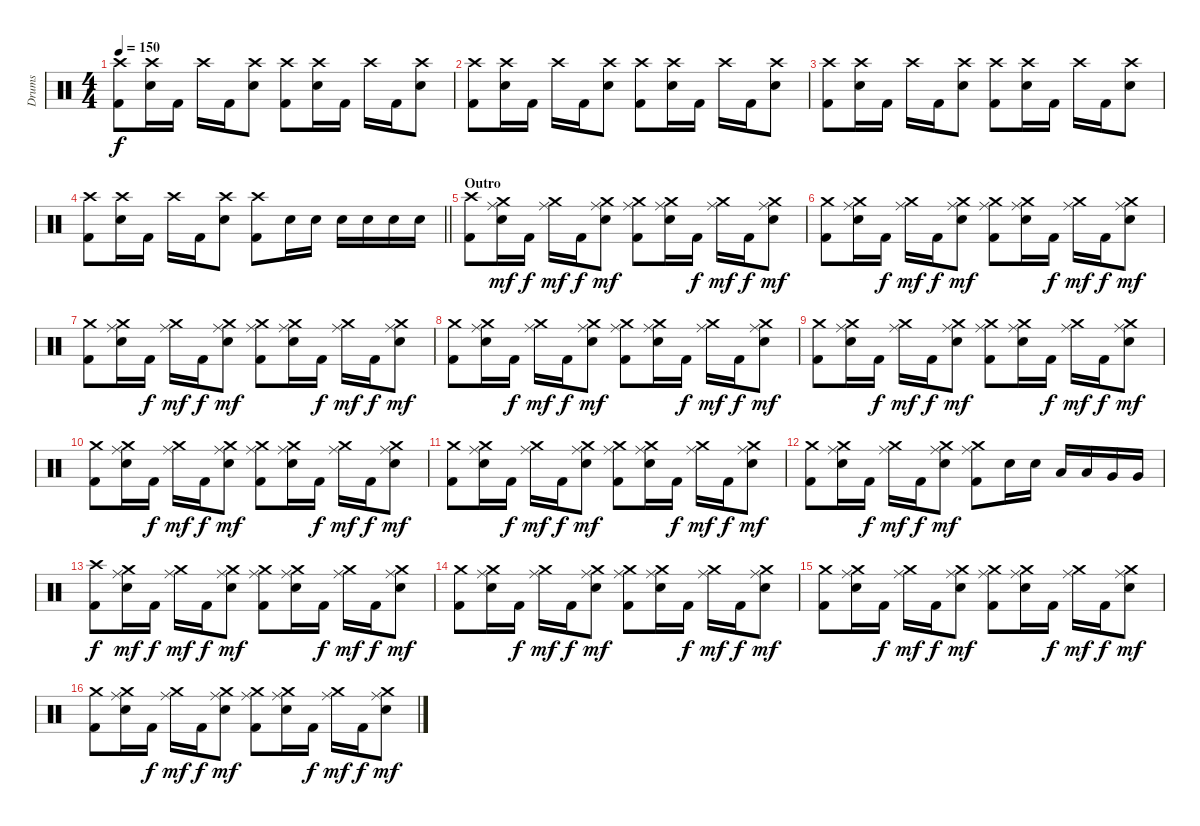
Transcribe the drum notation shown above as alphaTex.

\track ("Drums" "Drums") {instrument percussion}
\staff {score}
\articulation defaults
\ts (4 4)
\tempo 150
\clef neutral
\ks c
("Crash high (hit)" "Kick (hit) 2").8{dy f} ("Crash high (hit)" "Electric Snare (hit)").16 "Kick (hit) 2".16 "Crash high (hit)".16 "Kick (hit) 2".16 ("Crash high (hit)" "Electric Snare (hit)").8 ("Crash high (hit)" "Kick (hit) 2").8 ("Crash high (hit)" "Electric Snare (hit)").16 "Kick (hit) 2".16 "Crash high (hit)".16 "Kick (hit) 2".16 ("Crash high (hit)" "Electric Snare (hit)").8 |
("Crash high (hit)" "Kick (hit) 2").8 ("Crash high (hit)" "Electric Snare (hit)").16 "Kick (hit) 2".16 "Crash high (hit)".16 "Kick (hit) 2".16 ("Crash high (hit)" "Electric Snare (hit)").8 ("Crash high (hit)" "Kick (hit) 2").8 ("Crash high (hit)" "Electric Snare (hit)").16 "Kick (hit) 2".16 "Crash high (hit)".16 "Kick (hit) 2".16 ("Crash high (hit)" "Electric Snare (hit)").8 |
("Crash high (hit)" "Kick (hit) 2").8 ("Crash high (hit)" "Electric Snare (hit)").16 "Kick (hit) 2".16 "Crash high (hit)".16 "Kick (hit) 2".16 ("Crash high (hit)" "Electric Snare (hit)").8 ("Crash high (hit)" "Kick (hit) 2").8 ("Crash high (hit)" "Electric Snare (hit)").16 "Kick (hit) 2".16 "Crash high (hit)".16 "Kick (hit) 2".16 ("Crash high (hit)" "Electric Snare (hit)").8 |
\barLineRight lightlight
("Crash high (hit)" "Kick (hit) 2").8 ("Crash high (hit)" "Electric Snare (hit)").16 "Kick (hit) 2".16 "Crash high (hit)".16 "Kick (hit) 2".16 ("Crash high (hit)" "Electric Snare (hit)").8 ("Crash high (hit)" "Kick (hit) 2").8 "Electric Snare (hit)".16 "Electric Snare (hit)".16 "Electric Snare (hit)".16 "Electric Snare (hit)".16 "Electric Snare (hit)".16 "Electric Snare (hit)".16 |
\section ("" "Outro")
("Crash high (hit)" "Kick (hit) 2").8 ("Crash medium (hit)" "Ride (middle)" "Electric Snare (hit)").16{dy mf} "Kick (hit) 2".16{dy f} ("Crash medium (hit)" "Ride (middle)").16{dy mf} "Kick (hit) 2".16{dy f} ("Crash medium (hit)" "Ride (middle)" "Electric Snare (hit)").8{dy mf} ("Crash medium (hit)" "Ride (middle)" "Kick (hit) 2").8 ("Crash medium (hit)" "Ride (middle)" "Electric Snare (hit)").16 "Kick (hit) 2".16{dy f} ("Crash medium (hit)" "Ride (middle)").16{dy mf} "Kick (hit) 2".16{dy f} ("Crash medium (hit)" "Ride (middle)" "Electric Snare (hit)").8{dy mf} |
("Crash medium (hit)" "Kick (hit) 2").8 ("Crash medium (hit)" "Ride (middle)" "Electric Snare (hit)").16 "Kick (hit) 2".16{dy f} ("Crash medium (hit)" "Ride (middle)").16{dy mf} "Kick (hit) 2".16{dy f} ("Crash medium (hit)" "Ride (middle)" "Electric Snare (hit)").8{dy mf} ("Crash medium (hit)" "Ride (middle)" "Kick (hit) 2").8 ("Crash medium (hit)" "Ride (middle)" "Electric Snare (hit)").16 "Kick (hit) 2".16{dy f} ("Crash medium (hit)" "Ride (middle)").16{dy mf} "Kick (hit) 2".16{dy f} ("Crash medium (hit)" "Ride (middle)" "Electric Snare (hit)").8{dy mf} |
("Crash medium (hit)" "Kick (hit) 2").8 ("Crash medium (hit)" "Ride (middle)" "Electric Snare (hit)").16 "Kick (hit) 2".16{dy f} ("Crash medium (hit)" "Ride (middle)").16{dy mf} "Kick (hit) 2".16{dy f} ("Crash medium (hit)" "Ride (middle)" "Electric Snare (hit)").8{dy mf} ("Crash medium (hit)" "Ride (middle)" "Kick (hit) 2").8 ("Crash medium (hit)" "Ride (middle)" "Electric Snare (hit)").16 "Kick (hit) 2".16{dy f} ("Crash medium (hit)" "Ride (middle)").16{dy mf} "Kick (hit) 2".16{dy f} ("Crash medium (hit)" "Ride (middle)" "Electric Snare (hit)").8{dy mf} |
("Crash medium (hit)" "Kick (hit) 2").8 ("Crash medium (hit)" "Ride (middle)" "Electric Snare (hit)").16 "Kick (hit) 2".16{dy f} ("Crash medium (hit)" "Ride (middle)").16{dy mf} "Kick (hit) 2".16{dy f} ("Crash medium (hit)" "Ride (middle)" "Electric Snare (hit)").8{dy mf} ("Crash medium (hit)" "Ride (middle)" "Kick (hit) 2").8 ("Crash medium (hit)" "Ride (middle)" "Electric Snare (hit)").16 "Kick (hit) 2".16{dy f} ("Crash medium (hit)" "Ride (middle)").16{dy mf} "Kick (hit) 2".16{dy f} ("Crash medium (hit)" "Ride (middle)" "Electric Snare (hit)").8{dy mf} |
("Crash medium (hit)" "Kick (hit) 2").8 ("Crash medium (hit)" "Ride (middle)" "Electric Snare (hit)").16 "Kick (hit) 2".16{dy f} ("Crash medium (hit)" "Ride (middle)").16{dy mf} "Kick (hit) 2".16{dy f} ("Crash medium (hit)" "Ride (middle)" "Electric Snare (hit)").8{dy mf} ("Crash medium (hit)" "Ride (middle)" "Kick (hit) 2").8 ("Crash medium (hit)" "Ride (middle)" "Electric Snare (hit)").16 "Kick (hit) 2".16{dy f} ("Crash medium (hit)" "Ride (middle)").16{dy mf} "Kick (hit) 2".16{dy f} ("Crash medium (hit)" "Ride (middle)" "Electric Snare (hit)").8{dy mf} |
("Crash medium (hit)" "Kick (hit) 2").8 ("Crash medium (hit)" "Ride (middle)" "Electric Snare (hit)").16 "Kick (hit) 2".16{dy f} ("Crash medium (hit)" "Ride (middle)").16{dy mf} "Kick (hit) 2".16{dy f} ("Crash medium (hit)" "Ride (middle)" "Electric Snare (hit)").8{dy mf} ("Crash medium (hit)" "Ride (middle)" "Kick (hit) 2").8 ("Crash medium (hit)" "Ride (middle)" "Electric Snare (hit)").16 "Kick (hit) 2".16{dy f} ("Crash medium (hit)" "Ride (middle)").16{dy mf} "Kick (hit) 2".16{dy f} ("Crash medium (hit)" "Ride (middle)" "Electric Snare (hit)").8{dy mf} |
("Crash medium (hit)" "Kick (hit) 2").8 ("Crash medium (hit)" "Ride (middle)" "Electric Snare (hit)").16 "Kick (hit) 2".16{dy f} ("Crash medium (hit)" "Ride (middle)").16{dy mf} "Kick (hit) 2".16{dy f} ("Crash medium (hit)" "Ride (middle)" "Electric Snare (hit)").8{dy mf} ("Crash medium (hit)" "Ride (middle)" "Kick (hit) 2").8 ("Crash medium (hit)" "Ride (middle)" "Electric Snare (hit)").16 "Kick (hit) 2".16{dy f} ("Crash medium (hit)" "Ride (middle)").16{dy mf} "Kick (hit) 2".16{dy f} ("Crash medium (hit)" "Ride (middle)" "Electric Snare (hit)").8{dy mf} |
("Crash medium (hit)" "Kick (hit) 2").8 ("Crash medium (hit)" "Ride (middle)" "Electric Snare (hit)").16 "Kick (hit) 2".16{dy f} ("Crash medium (hit)" "Ride (middle)").16{dy mf} "Kick (hit) 2".16{dy f} ("Crash medium (hit)" "Ride (middle)" "Electric Snare (hit)").8{dy mf} ("Crash medium (hit)" "Ride (middle)" "Kick (hit) 2").8 "Electric Snare (hit)".16 "Electric Snare (hit)".16 "Low Tom (hit)".16 "Low Tom (hit)".16 "Very Low Tom (hit)".16 "Very Low Tom (hit)".16 |
("Crash high (hit)" "Kick (hit) 2").8{dy f} ("Crash medium (hit)" "Ride (middle)" "Electric Snare (hit)").16{dy mf} "Kick (hit) 2".16{dy f} ("Crash medium (hit)" "Ride (middle)").16{dy mf} "Kick (hit) 2".16{dy f} ("Crash medium (hit)" "Ride (middle)" "Electric Snare (hit)").8{dy mf} ("Crash medium (hit)" "Ride (middle)" "Kick (hit) 2").8 ("Crash medium (hit)" "Ride (middle)" "Electric Snare (hit)").16 "Kick (hit) 2".16{dy f} ("Crash medium (hit)" "Ride (middle)").16{dy mf} "Kick (hit) 2".16{dy f} ("Crash medium (hit)" "Ride (middle)" "Electric Snare (hit)").8{dy mf} |
("Crash medium (hit)" "Kick (hit) 2").8 ("Crash medium (hit)" "Ride (middle)" "Electric Snare (hit)").16 "Kick (hit) 2".16{dy f} ("Crash medium (hit)" "Ride (middle)").16{dy mf} "Kick (hit) 2".16{dy f} ("Crash medium (hit)" "Ride (middle)" "Electric Snare (hit)").8{dy mf} ("Crash medium (hit)" "Ride (middle)" "Kick (hit) 2").8 ("Crash medium (hit)" "Ride (middle)" "Electric Snare (hit)").16 "Kick (hit) 2".16{dy f} ("Crash medium (hit)" "Ride (middle)").16{dy mf} "Kick (hit) 2".16{dy f} ("Crash medium (hit)" "Ride (middle)" "Electric Snare (hit)").8{dy mf} |
("Crash medium (hit)" "Kick (hit) 2").8 ("Crash medium (hit)" "Ride (middle)" "Electric Snare (hit)").16 "Kick (hit) 2".16{dy f} ("Crash medium (hit)" "Ride (middle)").16{dy mf} "Kick (hit) 2".16{dy f} ("Crash medium (hit)" "Ride (middle)" "Electric Snare (hit)").8{dy mf} ("Crash medium (hit)" "Ride (middle)" "Kick (hit) 2").8 ("Crash medium (hit)" "Ride (middle)" "Electric Snare (hit)").16 "Kick (hit) 2".16{dy f} ("Crash medium (hit)" "Ride (middle)").16{dy mf} "Kick (hit) 2".16{dy f} ("Crash medium (hit)" "Ride (middle)" "Electric Snare (hit)").8{dy mf} |
("Crash medium (hit)" "Kick (hit) 2").8 ("Crash medium (hit)" "Ride (middle)" "Electric Snare (hit)").16 "Kick (hit) 2".16{dy f} ("Crash medium (hit)" "Ride (middle)").16{dy mf} "Kick (hit) 2".16{dy f} ("Crash medium (hit)" "Ride (middle)" "Electric Snare (hit)").8{dy mf} ("Crash medium (hit)" "Ride (middle)" "Kick (hit) 2").8 ("Crash medium (hit)" "Ride (middle)" "Electric Snare (hit)").16 "Kick (hit) 2".16{dy f} ("Crash medium (hit)" "Ride (middle)").16{dy mf} "Kick (hit) 2".16{dy f} ("Crash medium (hit)" "Ride (middle)" "Electric Snare (hit)").8{dy mf}
